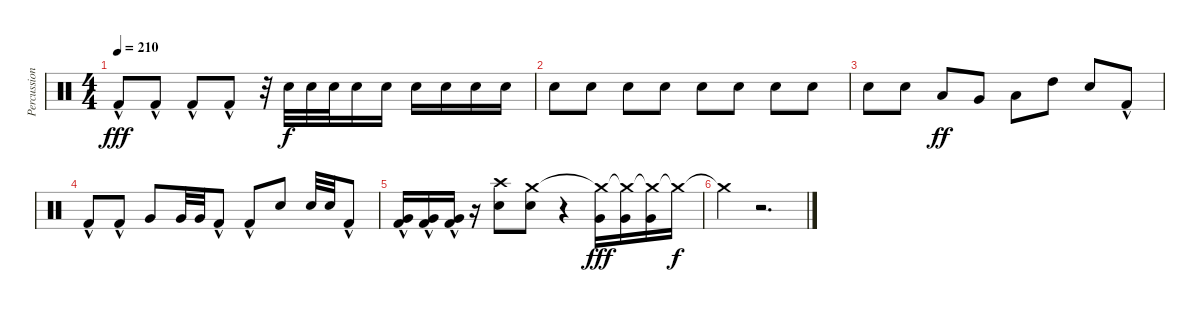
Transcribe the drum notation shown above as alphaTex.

\track ("Percussions" "Percussion") {instrument percussion}
\staff {score}
\articulation defaults
\ts (4 4)
\tempo 210
\clef neutral
\ks c "Kick (hit) 2"{hac}.8{dy fff} "Kick (hit) 2"{hac}.8 "Kick (hit) 2"{hac}.8 "Kick (hit) 2"{hac}.8
r.32 "Snare (hit) 2".32{dy f} "Snare (hit) 2".32 "Snare (hit) 2".32 "Snare (hit) 2".16 "Snare (hit) 2".16 "Snare (hit) 2".16 "Snare (hit) 2".16 "Snare (hit) 2".16 "Snare (hit) 2".16 |
"Snare (hit) 2".8 "Snare (hit) 2".8 "Snare (hit) 2".8 "Snare (hit) 2".8 "Snare (hit) 2".8 "Snare (hit) 2".8 "Snare (hit) 2".8 "Snare (hit) 2".8 |
"Snare (hit) 2".8 "Snare (hit) 2".8 "Low Floor Tom (hit)".8{dy ff} "Very Low Tom (hit)".8 "Low Tom (hit)".8 "High Tom (hit)".8 "Snare (hit) 2".8 "Kick (hit) 2"{hac}.8 |
"Kick (hit) 2"{hac}.8 "Kick (hit) 2"{hac}.8 "Very Low Tom (hit)".8 "Very Low Tom (hit)".32 "Very Low Tom (hit)".32 "Kick (hit) 2"{hac}.8 "Kick (hit) 2"{hac}.8 "Snare (hit) 2".8 "Snare (hit) 2".32 "Snare (hit) 2".32 "Kick (hit) 2"{hac}.8 |
("Very Low Tom (hit)" "Kick (hit) 2"{hac}).16 ("Very Low Tom (hit)" "Kick (hit) 2"{hac}).16 ("Very Low Tom (hit)" "Kick (hit) 2"{hac}).16 r.16 ("Crash high (hit)" "Snare (hit) 2").8 ("Crash medium (hit)" "Snare (hit) 2").8 r.4 ("Crash medium (hit)"{t} "Very Low Tom (hit)").16{dy fff} ("Crash medium (hit)"{t} "Very Low Tom (hit)").16 ("Crash medium (hit)"{t} "Very Low Tom (hit)").16 "Crash medium (hit)"{t}.16{dy f} |
"Crash medium (hit)"{t}.4 r.2{d}
